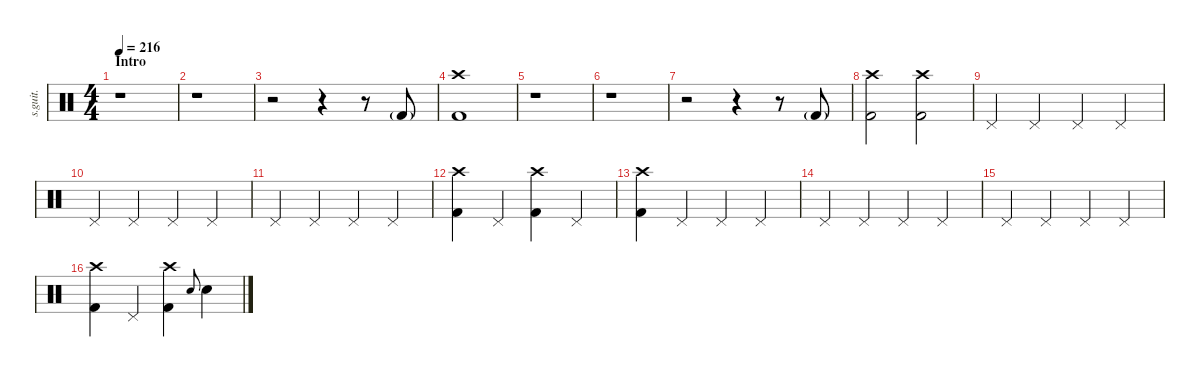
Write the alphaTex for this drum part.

\defaultSystemsLayout 4
\hideDynamics
\bracketExtendMode nobrackets
\track ("Jesus Bonehead | Drums" "s.guit.") {instrument percussion}
\staff {score}
\articulation defaults
\ts (4 4)
\beaming (8 2 2 2 2)
\section ("" "Intro")
\tempo 216
\clef neutral
\ks c
r.1{dy f} |
r.1 |
r.2 r.4 r.8 "Kick (hit) 2"{g}.8 |
("Crash high (hit)" "Kick (hit) 2").1 |
r.1 |
r.1 |
r.2 r.4 r.8 "Kick (hit) 2"{g}.8 |
("Crash high (hit)" "Kick (hit) 2").2 ("Crash high (hit)" "Kick (hit) 2").2 |
"Pedal Hi-Hat (hit)".4 "Pedal Hi-Hat (hit)".4 "Pedal Hi-Hat (hit)".4 "Pedal Hi-Hat (hit)".4 |
"Pedal Hi-Hat (hit)".4 "Pedal Hi-Hat (hit)".4 "Pedal Hi-Hat (hit)".4 "Pedal Hi-Hat (hit)".4 |
"Pedal Hi-Hat (hit)".4 "Pedal Hi-Hat (hit)".4 "Pedal Hi-Hat (hit)".4 "Pedal Hi-Hat (hit)".4 |
("Crash high (hit)" "Kick (hit) 2").4 "Pedal Hi-Hat (hit)".4 ("Crash high (hit)" "Kick (hit) 2").4 "Pedal Hi-Hat (hit)".4 |
("Crash high (hit)" "Kick (hit) 2").4 "Pedal Hi-Hat (hit)".4 "Pedal Hi-Hat (hit)".4 "Pedal Hi-Hat (hit)".4 |
"Pedal Hi-Hat (hit)".4 "Pedal Hi-Hat (hit)".4 "Pedal Hi-Hat (hit)".4 "Pedal Hi-Hat (hit)".4 |
"Pedal Hi-Hat (hit)".4 "Pedal Hi-Hat (hit)".4 "Pedal Hi-Hat (hit)".4 "Pedal Hi-Hat (hit)".4 |
("Crash high (hit)" "Kick (hit) 2").4 "Pedal Hi-Hat (hit)".4 ("Crash high (hit)" "Kick (hit) 2").4 "Snare (hit) 2".8{gr onbeat} "Snare (hit) 2".4
